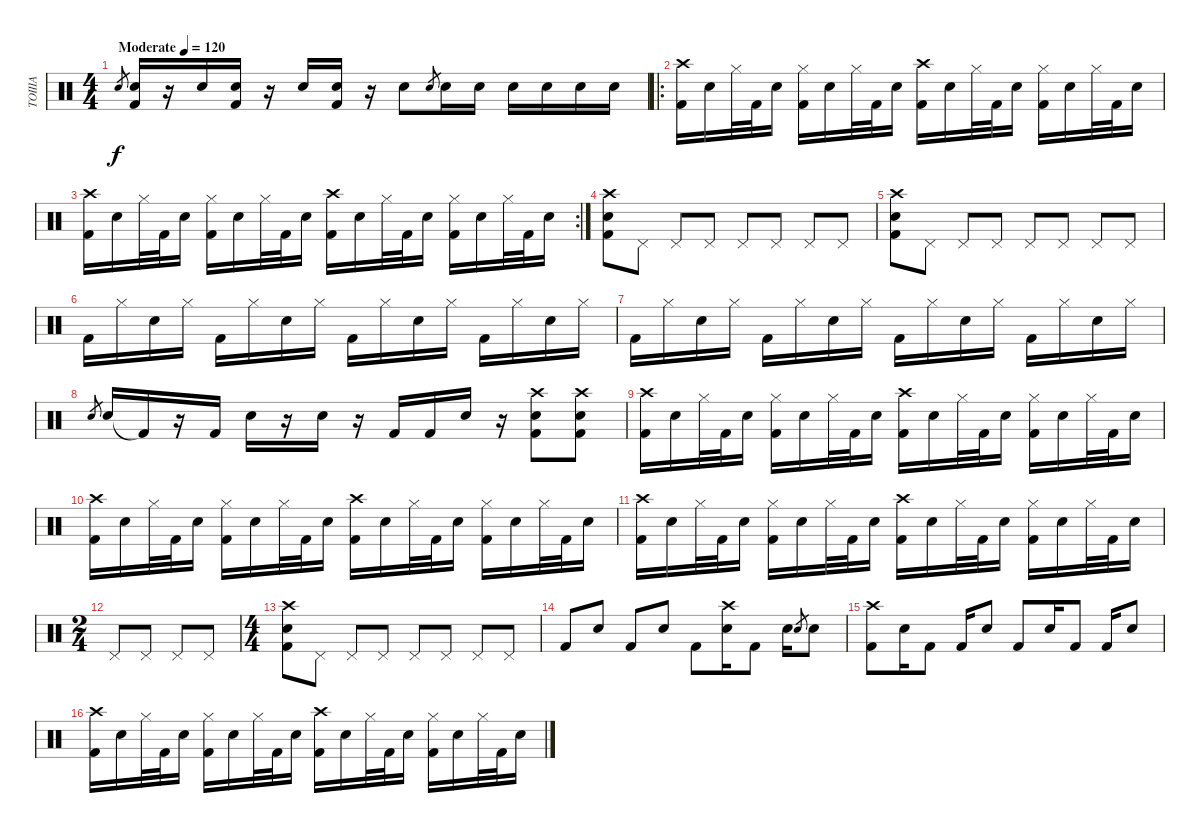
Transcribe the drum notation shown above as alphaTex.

\track ("TOIIIA" "TOIIIA") {instrument percussion}
\staff
\articulation defaults
\ts (4 4)
\tempo (120 "Moderate")
\clef neutral
\ks c "Electric Snare (hit)".8{gr dy f}
("Electric Snare (hit)" "Kick (hit) 2").16 r.16 "Electric Snare (hit)".16 ("Electric Snare (hit)" "Kick (hit) 2").16 r.16 "Electric Snare (hit)".16 ("Electric Snare (hit)" "Kick (hit) 2").16 r.16 "Electric Snare (hit)".8 "Electric Snare (hit)".8{gr} "Electric Snare (hit)".16 "Electric Snare (hit)".16 "Electric Snare (hit)".16 "Electric Snare (hit)".16 "Electric Snare (hit)".16 "Electric Snare (hit)".16 |
\ro
("Kick (hit) 2" "Crash high (hit)").16 "Electric Snare (hit)".16 "Hi-Hat (closed)".32 "Kick (hit) 2".32 "Electric Snare (hit)".16 ("Kick (hit) 2" "Hi-Hat (closed)").16 "Electric Snare (hit)".16 "Hi-Hat (closed)".32 "Kick (hit) 2".32 "Electric Snare (hit)".16 ("Kick (hit) 2" "Crash high (hit)").16 "Electric Snare (hit)".16 "Hi-Hat (closed)".32 "Kick (hit) 2".32 "Electric Snare (hit)".16 ("Kick (hit) 2" "Hi-Hat (closed)").16 "Electric Snare (hit)".16 "Hi-Hat (closed)".32 "Kick (hit) 2".32 "Electric Snare (hit)".16 |
\rc 2
("Kick (hit) 2" "Crash high (hit)").16 "Electric Snare (hit)".16 "Hi-Hat (closed)".32 "Kick (hit) 2".32 "Electric Snare (hit)".16 ("Kick (hit) 2" "Hi-Hat (closed)").16 "Electric Snare (hit)".16 "Hi-Hat (closed)".32 "Kick (hit) 2".32 "Electric Snare (hit)".16 ("Kick (hit) 2" "Crash high (hit)").16 "Electric Snare (hit)".16 "Hi-Hat (closed)".32 "Kick (hit) 2".32 "Electric Snare (hit)".16 ("Kick (hit) 2" "Hi-Hat (closed)").16 "Electric Snare (hit)".16 "Hi-Hat (closed)".32 "Kick (hit) 2".32 "Electric Snare (hit)".16 |
("Kick (hit) 2" "Crash high (hit)" "Electric Snare (hit)").8 "Pedal Hi-Hat (hit)".8 "Pedal Hi-Hat (hit)".8 "Pedal Hi-Hat (hit)".8 "Pedal Hi-Hat (hit)".8 "Pedal Hi-Hat (hit)".8 "Pedal Hi-Hat (hit)".8 "Pedal Hi-Hat (hit)".8 |
("Crash high (hit)" "Electric Snare (hit)" "Kick (hit) 2").8 "Pedal Hi-Hat (hit)".8 "Pedal Hi-Hat (hit)".8 "Pedal Hi-Hat (hit)".8 "Pedal Hi-Hat (hit)".8 "Pedal Hi-Hat (hit)".8 "Pedal Hi-Hat (hit)".8 "Pedal Hi-Hat (hit)".8 |
"Kick (hit) 2".16 "Hi-Hat (closed)".16 "Electric Snare (hit)".16 "Hi-Hat (closed)".16 "Kick (hit) 2".16 "Hi-Hat (closed)".16 "Electric Snare (hit)".16 "Hi-Hat (closed)".16 "Kick (hit) 2".16 "Hi-Hat (closed)".16 "Electric Snare (hit)".16 "Hi-Hat (closed)".16 "Kick (hit) 2".16 "Hi-Hat (closed)".16 "Electric Snare (hit)".16 "Hi-Hat (closed)".16 |
"Kick (hit) 2".16 "Hi-Hat (closed)".16 "Electric Snare (hit)".16 "Hi-Hat (closed)".16 "Kick (hit) 2".16 "Hi-Hat (closed)".16 "Electric Snare (hit)".16 "Hi-Hat (closed)".16 "Kick (hit) 2".16 "Hi-Hat (closed)".16 "Electric Snare (hit)".16 "Hi-Hat (closed)".16 "Kick (hit) 2".16 "Hi-Hat (closed)".16 "Electric Snare (hit)".16 "Hi-Hat (closed)".16 |
"Electric Snare (hit)".8{gr} "Electric Snare (hit)".16 "Kick (hit) 2"{t}.16 r.16 "Kick (hit) 2".16 "Electric Snare (hit)".16 r.16 "Electric Snare (hit)".16 r.16 "Kick (hit) 2".16 "Kick (hit) 2".16 "Electric Snare (hit)".16 r.16 ("Crash high (hit)" "Kick (hit) 2" "Electric Snare (hit)").8 ("Crash high (hit)" "Kick (hit) 2" "Electric Snare (hit)").8 |
("Kick (hit) 2" "Crash high (hit)").16 "Electric Snare (hit)".16 "Hi-Hat (closed)".32 "Kick (hit) 2".32 "Electric Snare (hit)".16 ("Kick (hit) 2" "Hi-Hat (closed)").16 "Electric Snare (hit)".16 "Hi-Hat (closed)".32 "Kick (hit) 2".32 "Electric Snare (hit)".16 ("Kick (hit) 2" "Crash high (hit)").16 "Electric Snare (hit)".16 "Hi-Hat (closed)".32 "Kick (hit) 2".32 "Electric Snare (hit)".16 ("Kick (hit) 2" "Hi-Hat (closed)").16 "Electric Snare (hit)".16 "Hi-Hat (closed)".32 "Kick (hit) 2".32 "Electric Snare (hit)".16 |
("Kick (hit) 2" "Crash high (hit)").16 "Electric Snare (hit)".16 "Hi-Hat (closed)".32 "Kick (hit) 2".32 "Electric Snare (hit)".16 ("Kick (hit) 2" "Hi-Hat (closed)").16 "Electric Snare (hit)".16 "Hi-Hat (closed)".32 "Kick (hit) 2".32 "Electric Snare (hit)".16 ("Kick (hit) 2" "Crash high (hit)").16 "Electric Snare (hit)".16 "Hi-Hat (closed)".32 "Kick (hit) 2".32 "Electric Snare (hit)".16 ("Kick (hit) 2" "Hi-Hat (closed)").16 "Electric Snare (hit)".16 "Hi-Hat (closed)".32 "Kick (hit) 2".32 "Electric Snare (hit)".16 |
("Kick (hit) 2" "Crash high (hit)").16 "Electric Snare (hit)".16 "Hi-Hat (closed)".32 "Kick (hit) 2".32 "Electric Snare (hit)".16 ("Kick (hit) 2" "Hi-Hat (closed)").16 "Electric Snare (hit)".16 "Hi-Hat (closed)".32 "Kick (hit) 2".32 "Electric Snare (hit)".16 ("Kick (hit) 2" "Crash high (hit)").16 "Electric Snare (hit)".16 "Hi-Hat (closed)".32 "Kick (hit) 2".32 "Electric Snare (hit)".16 ("Kick (hit) 2" "Hi-Hat (closed)").16 "Electric Snare (hit)".16 "Hi-Hat (closed)".32 "Kick (hit) 2".32 "Electric Snare (hit)".16 |
\ts (2 4)
"Pedal Hi-Hat (hit)".8 "Pedal Hi-Hat (hit)".8 "Pedal Hi-Hat (hit)".8 "Pedal Hi-Hat (hit)".8 |
\ts (4 4)
("Kick (hit) 2" "Crash high (hit)" "Electric Snare (hit)").8 "Pedal Hi-Hat (hit)".8 "Pedal Hi-Hat (hit)".8 "Pedal Hi-Hat (hit)".8 "Pedal Hi-Hat (hit)".8 "Pedal Hi-Hat (hit)".8 "Pedal Hi-Hat (hit)".8 "Pedal Hi-Hat (hit)".8 |
"Kick (hit) 2".8 "Electric Snare (hit)".8 "Kick (hit) 2".8 "Electric Snare (hit)".8 "Kick (hit) 2".8 ("Crash high (hit)" "Electric Snare (hit)").16 "Kick (hit) 2".8 "Electric Snare (hit)".16 "Electric Snare (hit)".8{gr} "Electric Snare (hit)".8 |
("Crash high (hit)" "Kick (hit) 2").8 "Electric Snare (hit)".16 "Kick (hit) 2".8 "Kick (hit) 2".16 "Electric Snare (hit)".8 "Kick (hit) 2".8 "Electric Snare (hit)".16 "Kick (hit) 2".8 "Kick (hit) 2".16 "Electric Snare (hit)".8 |
("Kick (hit) 2" "Crash high (hit)").16 "Electric Snare (hit)".16 "Hi-Hat (closed)".32 "Kick (hit) 2".32 "Electric Snare (hit)".16 ("Kick (hit) 2" "Hi-Hat (closed)").16 "Electric Snare (hit)".16 "Hi-Hat (closed)".32 "Kick (hit) 2".32 "Electric Snare (hit)".16 ("Kick (hit) 2" "Crash high (hit)").16 "Electric Snare (hit)".16 "Hi-Hat (closed)".32 "Kick (hit) 2".32 "Electric Snare (hit)".16 ("Kick (hit) 2" "Hi-Hat (closed)").16 "Electric Snare (hit)".16 "Hi-Hat (closed)".32 "Kick (hit) 2".32 "Electric Snare (hit)".16
